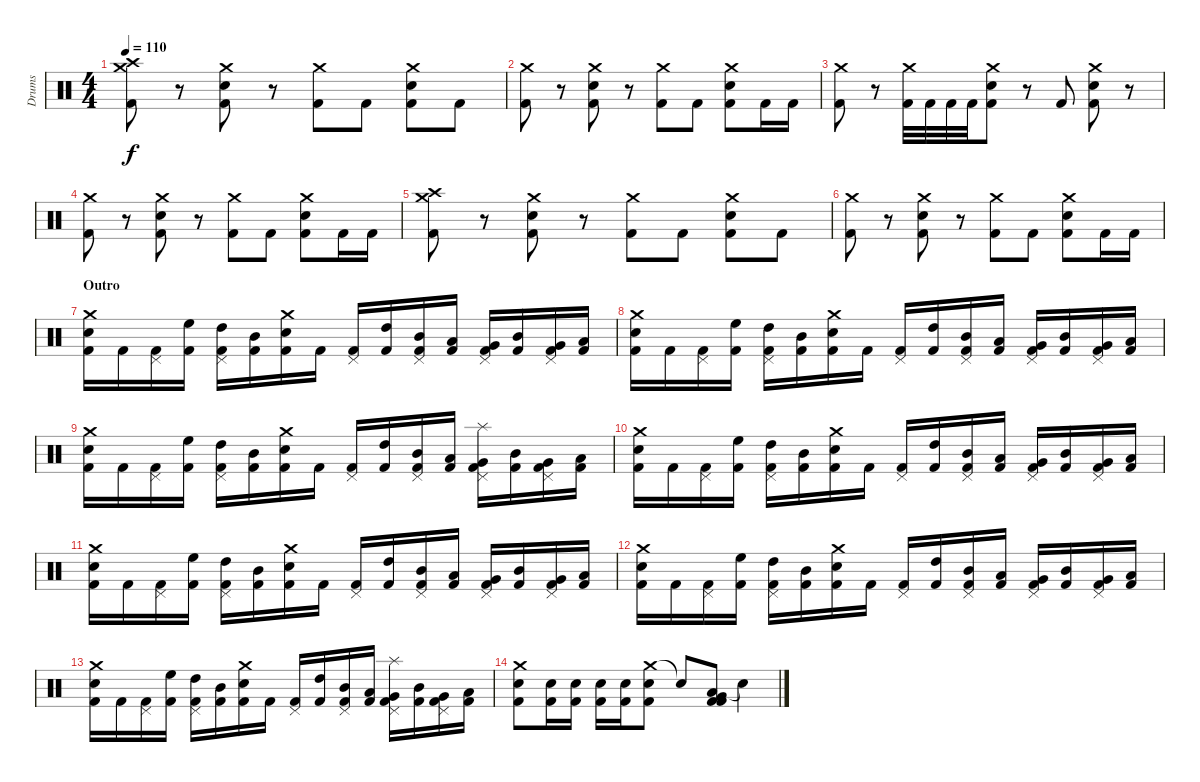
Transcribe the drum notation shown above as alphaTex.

\track ("Drums" "Drums") {instrument percussion}
\staff {score}
\articulation defaults
\ts (4 4)
\tempo 110
\clef neutral
\ks c
("Crash high (hit)" "Crash medium (hit)" "Kick (hit) 2").8{dy f} r.8 ("Crash medium (hit)" "Electric Snare (hit)" "Kick (hit) 2").8 r.8 ("Crash medium (hit)" "Kick (hit) 2").8 "Kick (hit) 2".8 ("Crash medium (hit)" "Electric Snare (hit)" "Kick (hit) 2").8 "Kick (hit) 2".8 |
("Crash medium (hit)" "Kick (hit) 2").8 r.8 ("Crash medium (hit)" "Electric Snare (hit)" "Kick (hit) 2").8 r.8 ("Crash medium (hit)" "Kick (hit) 2").8 "Kick (hit) 2".8 ("Crash medium (hit)" "Electric Snare (hit)" "Kick (hit) 2").8 "Kick (hit) 2".16 "Kick (hit) 2".16 |
("Crash medium (hit)" "Kick (hit) 2").8 r.8 ("Crash medium (hit)" "Kick (hit) 2").32 "Kick (hit) 2".32 "Kick (hit) 2".32 "Kick (hit) 2".32 ("Crash medium (hit)" "Snare (hit) 2" "Kick (hit) 2").8 r.8 "Kick (hit) 2".8 ("Crash medium (hit)" "Snare (hit) 2" "Kick (hit) 2").8 r.8 |
("Crash medium (hit)" "Kick (hit) 2").8 r.8 ("Crash medium (hit)" "Electric Snare (hit)" "Kick (hit) 2").8 r.8 ("Crash medium (hit)" "Kick (hit) 2").8 "Kick (hit) 2".8 ("Crash medium (hit)" "Electric Snare (hit)" "Kick (hit) 2").8 "Kick (hit) 2".16 "Kick (hit) 2".16 |
("Crash high (hit)" "Crash medium (hit)" "Kick (hit) 2").8 r.8 ("Crash medium (hit)" "Electric Snare (hit)" "Kick (hit) 2").8 r.8 ("Crash medium (hit)" "Kick (hit) 2").8 "Kick (hit) 2".8 ("Crash medium (hit)" "Electric Snare (hit)" "Kick (hit) 2").8 "Kick (hit) 2".8 |
("Crash medium (hit)" "Kick (hit) 2").8 r.8 ("Crash medium (hit)" "Electric Snare (hit)" "Kick (hit) 2").8 r.8 ("Crash medium (hit)" "Kick (hit) 2").8 "Kick (hit) 2".8 ("Crash medium (hit)" "Electric Snare (hit)" "Kick (hit) 2").8 "Kick (hit) 2".16 "Kick (hit) 2".16 |
\section ("" "Outro")
("Crash medium (hit)" "Electric Snare (hit)" "Kick (hit) 2").16 "Kick (hit) 2".16 ("Pedal Hi-Hat (hit)" "Kick (hit) 2").16 ("High Floor Tom (hit)" "Kick (hit) 2").16 ("Pedal Hi-Hat (hit)" "High Tom (hit)" "Kick (hit) 2").16 ("Mid Tom (hit)" "Kick (hit) 2").16 ("Crash medium (hit)" "Electric Snare (hit)" "Kick (hit) 2").16 "Kick (hit) 2".16 ("Pedal Hi-Hat (hit)" "Kick (hit) 2").16 ("High Tom (hit)" "Kick (hit) 2").16 ("Pedal Hi-Hat (hit)" "Mid Tom (hit)" "Kick (hit) 2").16 ("Low Tom (hit)" "Kick (hit) 2").16 ("Pedal Hi-Hat (hit)" "Very Low Tom (hit)" "Kick (hit) 2").16 ("Mid Tom (hit)" "Kick (hit) 2").16 ("Pedal Hi-Hat (hit)" "Very Low Tom (hit)" "Kick (hit) 2").16 ("Low Floor Tom (hit)" "Kick (hit) 2").16 |
("Crash medium (hit)" "Electric Snare (hit)" "Kick (hit) 2").16 "Kick (hit) 2".16 ("Pedal Hi-Hat (hit)" "Kick (hit) 2").16 ("High Floor Tom (hit)" "Kick (hit) 2").16 ("Pedal Hi-Hat (hit)" "High Tom (hit)" "Kick (hit) 2").16 ("Mid Tom (hit)" "Kick (hit) 2").16 ("Crash medium (hit)" "Electric Snare (hit)" "Kick (hit) 2").16 "Kick (hit) 2".16 ("Pedal Hi-Hat (hit)" "Kick (hit) 2").16 ("High Tom (hit)" "Kick (hit) 2").16 ("Pedal Hi-Hat (hit)" "Mid Tom (hit)" "Kick (hit) 2").16 ("Low Tom (hit)" "Kick (hit) 2").16 ("Pedal Hi-Hat (hit)" "Very Low Tom (hit)" "Kick (hit) 2").16 ("Mid Tom (hit)" "Kick (hit) 2").16 ("Pedal Hi-Hat (hit)" "Very Low Tom (hit)" "Kick (hit) 2").16 ("Low Floor Tom (hit)" "Kick (hit) 2").16 |
("Crash medium (hit)" "Electric Snare (hit)" "Kick (hit) 2").16 "Kick (hit) 2".16 ("Pedal Hi-Hat (hit)" "Kick (hit) 2").16 ("High Floor Tom (hit)" "Kick (hit) 2").16 ("Pedal Hi-Hat (hit)" "High Tom (hit)" "Kick (hit) 2").16 ("Mid Tom (hit)" "Kick (hit) 2").16 ("Crash medium (hit)" "Electric Snare (hit)" "Kick (hit) 2").16 "Kick (hit) 2".16 ("Pedal Hi-Hat (hit)" "Kick (hit) 2").16 ("High Tom (hit)" "Kick (hit) 2").16 ("Pedal Hi-Hat (hit)" "Mid Tom (hit)" "Kick (hit) 2").16 ("Low Tom (hit)" "Kick (hit) 2").16 ("Splash (hit)" "Pedal Hi-Hat (hit)" "Very Low Tom (hit)" "Kick (hit) 2").16 ("Mid Tom (hit)" "Kick (hit) 2").16 ("Pedal Hi-Hat (hit)" "Very Low Tom (hit)" "Kick (hit) 2").16 ("Low Floor Tom (hit)" "Kick (hit) 2").16 |
("Crash medium (hit)" "Electric Snare (hit)" "Kick (hit) 2").16 "Kick (hit) 2".16 ("Pedal Hi-Hat (hit)" "Kick (hit) 2").16 ("High Floor Tom (hit)" "Kick (hit) 2").16 ("Pedal Hi-Hat (hit)" "High Tom (hit)" "Kick (hit) 2").16 ("Mid Tom (hit)" "Kick (hit) 2").16 ("Crash medium (hit)" "Electric Snare (hit)" "Kick (hit) 2").16 "Kick (hit) 2".16 ("Pedal Hi-Hat (hit)" "Kick (hit) 2").16 ("High Tom (hit)" "Kick (hit) 2").16 ("Pedal Hi-Hat (hit)" "Mid Tom (hit)" "Kick (hit) 2").16 ("Low Tom (hit)" "Kick (hit) 2").16 ("Pedal Hi-Hat (hit)" "Very Low Tom (hit)" "Kick (hit) 2").16 ("Mid Tom (hit)" "Kick (hit) 2").16 ("Pedal Hi-Hat (hit)" "Very Low Tom (hit)" "Kick (hit) 2").16 ("Low Floor Tom (hit)" "Kick (hit) 2").16 |
("Crash medium (hit)" "Electric Snare (hit)" "Kick (hit) 2").16 "Kick (hit) 2".16 ("Pedal Hi-Hat (hit)" "Kick (hit) 2").16 ("High Floor Tom (hit)" "Kick (hit) 2").16 ("Pedal Hi-Hat (hit)" "High Tom (hit)" "Kick (hit) 2").16 ("Mid Tom (hit)" "Kick (hit) 2").16 ("Crash medium (hit)" "Electric Snare (hit)" "Kick (hit) 2").16 "Kick (hit) 2".16 ("Pedal Hi-Hat (hit)" "Kick (hit) 2").16 ("High Tom (hit)" "Kick (hit) 2").16 ("Pedal Hi-Hat (hit)" "Mid Tom (hit)" "Kick (hit) 2").16 ("Low Tom (hit)" "Kick (hit) 2").16 ("Pedal Hi-Hat (hit)" "Very Low Tom (hit)" "Kick (hit) 2").16 ("Mid Tom (hit)" "Kick (hit) 2").16 ("Pedal Hi-Hat (hit)" "Very Low Tom (hit)" "Kick (hit) 2").16 ("Low Floor Tom (hit)" "Kick (hit) 2").16 |
("Crash medium (hit)" "Electric Snare (hit)" "Kick (hit) 2").16 "Kick (hit) 2".16 ("Pedal Hi-Hat (hit)" "Kick (hit) 2").16 ("High Floor Tom (hit)" "Kick (hit) 2").16 ("Pedal Hi-Hat (hit)" "High Tom (hit)" "Kick (hit) 2").16 ("Mid Tom (hit)" "Kick (hit) 2").16 ("Crash medium (hit)" "Electric Snare (hit)" "Kick (hit) 2").16 "Kick (hit) 2".16 ("Pedal Hi-Hat (hit)" "Kick (hit) 2").16 ("High Tom (hit)" "Kick (hit) 2").16 ("Pedal Hi-Hat (hit)" "Mid Tom (hit)" "Kick (hit) 2").16 ("Low Tom (hit)" "Kick (hit) 2").16 ("Pedal Hi-Hat (hit)" "Very Low Tom (hit)" "Kick (hit) 2").16 ("Mid Tom (hit)" "Kick (hit) 2").16 ("Pedal Hi-Hat (hit)" "Very Low Tom (hit)" "Kick (hit) 2").16 ("Low Floor Tom (hit)" "Kick (hit) 2").16 |
("Crash medium (hit)" "Electric Snare (hit)" "Kick (hit) 2").16 "Kick (hit) 2".16 ("Pedal Hi-Hat (hit)" "Kick (hit) 2").16 ("High Floor Tom (hit)" "Kick (hit) 2").16 ("Pedal Hi-Hat (hit)" "High Tom (hit)" "Kick (hit) 2").16 ("Mid Tom (hit)" "Kick (hit) 2").16 ("Crash medium (hit)" "Electric Snare (hit)" "Kick (hit) 2").16 "Kick (hit) 2".16 ("Pedal Hi-Hat (hit)" "Kick (hit) 2").16 ("High Tom (hit)" "Kick (hit) 2").16 ("Pedal Hi-Hat (hit)" "Mid Tom (hit)" "Kick (hit) 2").16 ("Low Tom (hit)" "Kick (hit) 2").16 ("Splash (hit)" "Pedal Hi-Hat (hit)" "Very Low Tom (hit)" "Kick (hit) 2").16 ("Mid Tom (hit)" "Kick (hit) 2").16 ("Pedal Hi-Hat (hit)" "Very Low Tom (hit)" "Kick (hit) 2").16 ("Low Floor Tom (hit)" "Kick (hit) 2").16 |
("Crash medium (hit)" "Kick (hit) 2" "Electric Snare (hit)").8 ("Kick (hit) 2" "Electric Snare (hit)").16 ("Kick (hit) 2" "Electric Snare (hit)").16 ("Kick (hit) 2" "Electric Snare (hit)").16 ("Kick (hit) 2" "Electric Snare (hit)").16 ("Crash medium (hit)" "Kick (hit) 2" "Electric Snare (hit)").8 "Snare (hit)"{t}.8 ("Low Floor Tom (hit)" "Very Low Tom (hit)" "Kick (hit) 2" "Kick (hit) 2").8 "Snare (hit)"{t}.4
